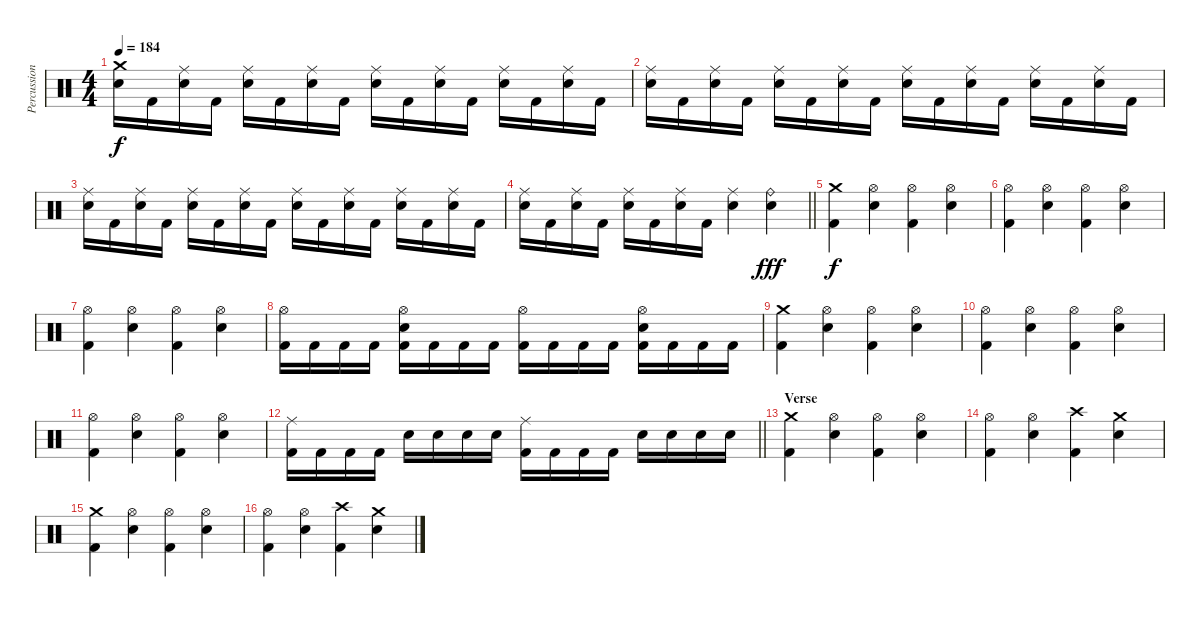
\track ("Percussion" "Percussion") {instrument percussion}
\staff {score}
\articulation defaults
\ts (4 4)
\tempo 184
\clef neutral
\ks c
("Crash medium (hit)" "Electric Snare (hit)").16{dy f} "Kick (hit) 2".16 ("Ride (middle)" "Electric Snare (hit)").16 "Kick (hit) 2".16 ("Ride (middle)" "Electric Snare (hit)").16 "Kick (hit) 2".16 ("Ride (middle)" "Electric Snare (hit)").16 "Kick (hit) 2".16 ("Ride (middle)" "Electric Snare (hit)").16 "Kick (hit) 2".16 ("Ride (middle)" "Electric Snare (hit)").16 "Kick (hit) 2".16 ("Ride (middle)" "Electric Snare (hit)").16 "Kick (hit) 2".16 ("Ride (middle)" "Electric Snare (hit)").16 "Kick (hit) 2".16 |
("Ride (middle)" "Electric Snare (hit)").16 "Kick (hit) 2".16 ("Ride (middle)" "Electric Snare (hit)").16 "Kick (hit) 2".16 ("Ride (middle)" "Electric Snare (hit)").16 "Kick (hit) 2".16 ("Ride (middle)" "Electric Snare (hit)").16 "Kick (hit) 2".16 ("Ride (middle)" "Electric Snare (hit)").16 "Kick (hit) 2".16 ("Ride (middle)" "Electric Snare (hit)").16 "Kick (hit) 2".16 ("Ride (middle)" "Electric Snare (hit)").16 "Kick (hit) 2".16 ("Ride (middle)" "Electric Snare (hit)").16 "Kick (hit) 2".16 |
("Ride (middle)" "Electric Snare (hit)").16 "Kick (hit) 2".16 ("Ride (middle)" "Electric Snare (hit)").16 "Kick (hit) 2".16 ("Ride (middle)" "Electric Snare (hit)").16 "Kick (hit) 2".16 ("Ride (middle)" "Electric Snare (hit)").16 "Kick (hit) 2".16 ("Ride (middle)" "Electric Snare (hit)").16 "Kick (hit) 2".16 ("Ride (middle)" "Electric Snare (hit)").16 "Kick (hit) 2".16 ("Ride (middle)" "Electric Snare (hit)").16 "Kick (hit) 2".16 ("Ride (middle)" "Electric Snare (hit)").16 "Kick (hit) 2".16 |
\barLineRight lightlight
("Ride (middle)" "Electric Snare (hit)").16 "Kick (hit) 2".16 ("Ride (middle)" "Electric Snare (hit)").16 "Kick (hit) 2".16 ("Ride (middle)" "Electric Snare (hit)").16 "Kick (hit) 2".16 ("Ride (middle)" "Electric Snare (hit)").16 "Kick (hit) 2".16 ("Ride (middle)" "Electric Snare (hit)").4 ("Metronome (bell)" "Ride (bell)").4{dy fff} |
("Crash medium (hit)" "Kick (hit) 2").4{dy f} ("Hi-Hat (open)" "Electric Snare (hit)").4 ("Hi-Hat (open)" "Kick (hit) 2").4 ("Hi-Hat (open)" "Electric Snare (hit)").4 |
("Hi-Hat (open)" "Kick (hit) 2").4 ("Hi-Hat (open)" "Electric Snare (hit)").4 ("Hi-Hat (open)" "Kick (hit) 2").4 ("Hi-Hat (open)" "Electric Snare (hit)").4 |
("Hi-Hat (open)" "Kick (hit) 2").4 ("Hi-Hat (open)" "Electric Snare (hit)").4 ("Hi-Hat (open)" "Kick (hit) 2").4 ("Hi-Hat (open)" "Electric Snare (hit)").4 |
("Hi-Hat (open)" "Kick (hit) 2").16 "Kick (hit) 2".16 "Kick (hit) 2".16 "Kick (hit) 2".16 ("Hi-Hat (open)" "Electric Snare (hit)" "Kick (hit) 2").16 "Kick (hit) 2".16 "Kick (hit) 2".16 "Kick (hit) 2".16 ("Hi-Hat (open)" "Kick (hit) 2").16 "Kick (hit) 2".16 "Kick (hit) 2".16 "Kick (hit) 2".16 ("Hi-Hat (open)" "Electric Snare (hit)" "Kick (hit) 2").16 "Kick (hit) 2".16 "Kick (hit) 2".16 "Kick (hit) 2".16 |
("Crash medium (hit)" "Kick (hit) 2").4 ("Hi-Hat (open)" "Electric Snare (hit)").4 ("Hi-Hat (open)" "Kick (hit) 2").4 ("Hi-Hat (open)" "Electric Snare (hit)").4 |
("Hi-Hat (open)" "Kick (hit) 2").4 ("Hi-Hat (open)" "Electric Snare (hit)").4 ("Hi-Hat (open)" "Kick (hit) 2").4 ("Hi-Hat (open)" "Electric Snare (hit)").4 |
("Hi-Hat (open)" "Kick (hit) 2").4 ("Hi-Hat (open)" "Electric Snare (hit)").4 ("Hi-Hat (open)" "Kick (hit) 2").4 ("Hi-Hat (open)" "Electric Snare (hit)").4 |
\barLineRight lightlight
("Ride (middle)" "Kick (hit) 2").16 "Kick (hit) 2".16 "Kick (hit) 2".16 "Kick (hit) 2".16 "Electric Snare (hit)".16 "Electric Snare (hit)".16 "Electric Snare (hit)".16 "Electric Snare (hit)".16 ("Ride (middle)" "Kick (hit) 2").16 "Kick (hit) 2".16 "Kick (hit) 2".16 "Kick (hit) 2".16 "Electric Snare (hit)".16 "Electric Snare (hit)".16 "Electric Snare (hit)".16 "Electric Snare (hit)".16 |
\section ("" "Verse")
("Crash medium (hit)" "Kick (hit) 2").4 ("Hi-Hat (open)" "Electric Snare (hit)").4 ("Hi-Hat (open)" "Kick (hit) 2").4 ("Hi-Hat (open)" "Electric Snare (hit)").4 |
("Hi-Hat (open)" "Kick (hit) 2").4 ("Hi-Hat (open)" "Electric Snare (hit)").4 ("Crash high (hit)" "Kick (hit) 2").4 ("Crash medium (hit)" "Electric Snare (hit)").4 |
("Crash medium (hit)" "Kick (hit) 2").4 ("Hi-Hat (open)" "Electric Snare (hit)").4 ("Hi-Hat (open)" "Kick (hit) 2").4 ("Hi-Hat (open)" "Electric Snare (hit)").4 |
("Hi-Hat (open)" "Kick (hit) 2").4 ("Hi-Hat (open)" "Electric Snare (hit)").4 ("Crash high (hit)" "Kick (hit) 2").4 ("Crash medium (hit)" "Electric Snare (hit)").4
